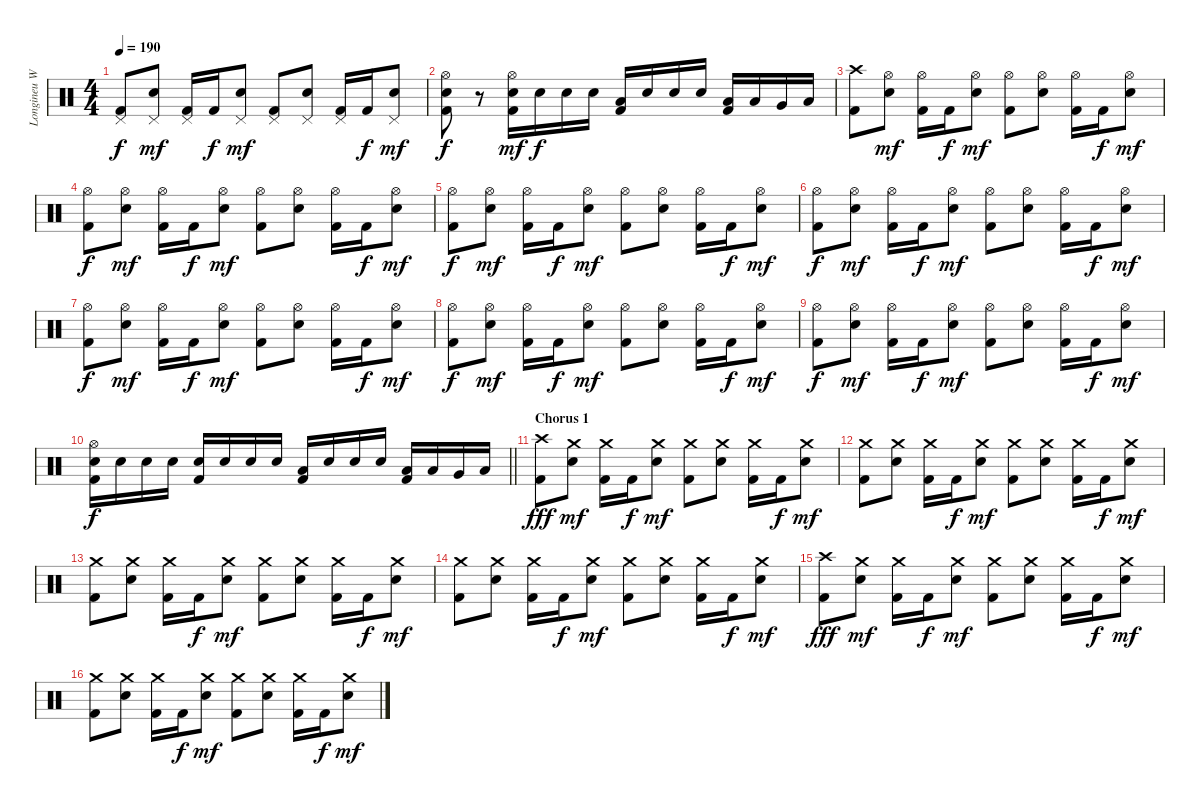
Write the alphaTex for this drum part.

\track ("Longineu W. Parsons III" "Longineu W") {instrument percussion}
\staff {score}
\articulation defaults
\ts (4 4)
\tempo 190
\clef neutral
\ks c
("Pedal Hi-Hat (hit)" "Kick (hit) 2").8{dy f} ("Pedal Hi-Hat (hit)" "Electric Snare (hit)").8{dy mf} ("Pedal Hi-Hat (hit)" "Kick (hit) 2").16 "Kick (hit) 2".16{dy f} ("Pedal Hi-Hat (hit)" "Electric Snare (hit)").8{dy mf} ("Pedal Hi-Hat (hit)" "Kick (hit) 2").8 ("Pedal Hi-Hat (hit)" "Electric Snare (hit)").8 ("Pedal Hi-Hat (hit)" "Kick (hit) 2").16 "Kick (hit) 2".16{dy f} ("Pedal Hi-Hat (hit)" "Electric Snare (hit)").8{dy mf} |
("Hi-Hat (open)" "Electric Snare (hit)" "Kick (hit) 2").8{dy f} r.8 ("Hi-Hat (open)" "Electric Snare (hit)" "Kick (hit) 2").16{dy mf} "Electric Snare (hit)".16{dy f} "Electric Snare (hit)".16 "Electric Snare (hit)".16 ("Low Tom (hit)" "Kick (hit) 2").16 "Electric Snare (hit)".16 "Electric Snare (hit)".16 "Electric Snare (hit)".16 ("Low Tom (hit)" "Kick (hit) 2").16 "Low Tom (hit)".16 "Very Low Tom (hit)".16 "Low Floor Tom (hit)".16 |
("Crash high (hit)" "Kick (hit) 2").8 ("Hi-Hat (open)" "Electric Snare (hit)").8{dy mf} ("Hi-Hat (open)" "Kick (hit) 2").16 "Kick (hit) 2".16{dy f} ("Hi-Hat (open)" "Electric Snare (hit)").8{dy mf} ("Hi-Hat (open)" "Kick (hit) 2").8 ("Hi-Hat (open)" "Electric Snare (hit)").8 ("Hi-Hat (open)" "Kick (hit) 2").16 "Kick (hit) 2".16{dy f} ("Hi-Hat (open)" "Electric Snare (hit)").8{dy mf} |
("Hi-Hat (open)" "Kick (hit) 2").8{dy f} ("Hi-Hat (open)" "Electric Snare (hit)").8{dy mf} ("Hi-Hat (open)" "Kick (hit) 2").16 "Kick (hit) 2".16{dy f} ("Hi-Hat (open)" "Electric Snare (hit)").8{dy mf} ("Hi-Hat (open)" "Kick (hit) 2").8 ("Hi-Hat (open)" "Electric Snare (hit)").8 ("Hi-Hat (open)" "Kick (hit) 2").16 "Kick (hit) 2".16{dy f} ("Hi-Hat (open)" "Electric Snare (hit)").8{dy mf} |
("Hi-Hat (open)" "Kick (hit) 2").8{dy f} ("Hi-Hat (open)" "Electric Snare (hit)").8{dy mf} ("Hi-Hat (open)" "Kick (hit) 2").16 "Kick (hit) 2".16{dy f} ("Hi-Hat (open)" "Electric Snare (hit)").8{dy mf} ("Hi-Hat (open)" "Kick (hit) 2").8 ("Hi-Hat (open)" "Electric Snare (hit)").8 ("Hi-Hat (open)" "Kick (hit) 2").16 "Kick (hit) 2".16{dy f} ("Hi-Hat (open)" "Electric Snare (hit)").8{dy mf} |
("Hi-Hat (open)" "Kick (hit) 2").8{dy f} ("Hi-Hat (open)" "Electric Snare (hit)").8{dy mf} ("Hi-Hat (open)" "Kick (hit) 2").16 "Kick (hit) 2".16{dy f} ("Hi-Hat (open)" "Electric Snare (hit)").8{dy mf} ("Hi-Hat (open)" "Kick (hit) 2").8 ("Hi-Hat (open)" "Electric Snare (hit)").8 ("Hi-Hat (open)" "Kick (hit) 2").16 "Kick (hit) 2".16{dy f} ("Hi-Hat (open)" "Electric Snare (hit)").8{dy mf} |
("Hi-Hat (open)" "Kick (hit) 2").8{dy f} ("Hi-Hat (open)" "Electric Snare (hit)").8{dy mf} ("Hi-Hat (open)" "Kick (hit) 2").16 "Kick (hit) 2".16{dy f} ("Hi-Hat (open)" "Electric Snare (hit)").8{dy mf} ("Hi-Hat (open)" "Kick (hit) 2").8 ("Hi-Hat (open)" "Electric Snare (hit)").8 ("Hi-Hat (open)" "Kick (hit) 2").16 "Kick (hit) 2".16{dy f} ("Hi-Hat (open)" "Electric Snare (hit)").8{dy mf} |
("Hi-Hat (open)" "Kick (hit) 2").8{dy f} ("Hi-Hat (open)" "Electric Snare (hit)").8{dy mf} ("Hi-Hat (open)" "Kick (hit) 2").16 "Kick (hit) 2".16{dy f} ("Hi-Hat (open)" "Electric Snare (hit)").8{dy mf} ("Hi-Hat (open)" "Kick (hit) 2").8 ("Hi-Hat (open)" "Electric Snare (hit)").8 ("Hi-Hat (open)" "Kick (hit) 2").16 "Kick (hit) 2".16{dy f} ("Hi-Hat (open)" "Electric Snare (hit)").8{dy mf} |
("Hi-Hat (open)" "Kick (hit) 2").8{dy f} ("Hi-Hat (open)" "Electric Snare (hit)").8{dy mf} ("Hi-Hat (open)" "Kick (hit) 2").16 "Kick (hit) 2".16{dy f} ("Hi-Hat (open)" "Electric Snare (hit)").8{dy mf} ("Hi-Hat (open)" "Kick (hit) 2").8 ("Hi-Hat (open)" "Electric Snare (hit)").8 ("Hi-Hat (open)" "Kick (hit) 2").16 "Kick (hit) 2".16{dy f} ("Hi-Hat (open)" "Electric Snare (hit)").8{dy mf} |
\barLineRight lightlight
("Hi-Hat (open)" "Electric Snare (hit)" "Kick (hit) 2").16{dy f} "Electric Snare (hit)".16 "Electric Snare (hit)".16 "Electric Snare (hit)".16 ("Electric Snare (hit)" "Kick (hit) 2").16 "Electric Snare (hit)".16 "Electric Snare (hit)".16 "Electric Snare (hit)".16 ("Low Tom (hit)" "Kick (hit) 2").16 "Electric Snare (hit)".16 "Electric Snare (hit)".16 "Electric Snare (hit)".16 ("Low Tom (hit)" "Kick (hit) 2").16 "Low Tom (hit)".16 "Very Low Tom (hit)".16 "Low Floor Tom (hit)".16 |
\section ("" "Chorus 1")
("Crash high (hit)" "Kick (hit) 2").8{dy fff} ("Crash medium (hit)" "Electric Snare (hit)").8{dy mf} ("Crash medium (hit)" "Kick (hit) 2").16 "Kick (hit) 2".16{dy f} ("Crash medium (hit)" "Electric Snare (hit)").8{dy mf} ("Crash medium (hit)" "Kick (hit) 2").8 ("Crash medium (hit)" "Electric Snare (hit)").8 ("Crash medium (hit)" "Kick (hit) 2").16 "Kick (hit) 2".16{dy f} ("Crash medium (hit)" "Electric Snare (hit)").8{dy mf} |
("Crash medium (hit)" "Kick (hit) 2").8 ("Crash medium (hit)" "Electric Snare (hit)").8 ("Crash medium (hit)" "Kick (hit) 2").16 "Kick (hit) 2".16{dy f} ("Crash medium (hit)" "Electric Snare (hit)").8{dy mf} ("Crash medium (hit)" "Kick (hit) 2").8 ("Crash medium (hit)" "Electric Snare (hit)").8 ("Crash medium (hit)" "Kick (hit) 2").16 "Kick (hit) 2".16{dy f} ("Crash medium (hit)" "Electric Snare (hit)").8{dy mf} |
("Crash medium (hit)" "Kick (hit) 2").8 ("Crash medium (hit)" "Electric Snare (hit)").8 ("Crash medium (hit)" "Kick (hit) 2").16 "Kick (hit) 2".16{dy f} ("Crash medium (hit)" "Electric Snare (hit)").8{dy mf} ("Crash medium (hit)" "Kick (hit) 2").8 ("Crash medium (hit)" "Electric Snare (hit)").8 ("Crash medium (hit)" "Kick (hit) 2").16 "Kick (hit) 2".16{dy f} ("Crash medium (hit)" "Electric Snare (hit)").8{dy mf} |
("Crash medium (hit)" "Kick (hit) 2").8 ("Crash medium (hit)" "Electric Snare (hit)").8 ("Crash medium (hit)" "Kick (hit) 2").16 "Kick (hit) 2".16{dy f} ("Crash medium (hit)" "Electric Snare (hit)").8{dy mf} ("Crash medium (hit)" "Kick (hit) 2").8 ("Crash medium (hit)" "Electric Snare (hit)").8 ("Crash medium (hit)" "Kick (hit) 2").16 "Kick (hit) 2".16{dy f} ("Crash medium (hit)" "Electric Snare (hit)").8{dy mf} |
("Crash high (hit)" "Kick (hit) 2").8{dy fff} ("Crash medium (hit)" "Electric Snare (hit)").8{dy mf} ("Crash medium (hit)" "Kick (hit) 2").16 "Kick (hit) 2".16{dy f} ("Crash medium (hit)" "Electric Snare (hit)").8{dy mf} ("Crash medium (hit)" "Kick (hit) 2").8 ("Crash medium (hit)" "Electric Snare (hit)").8 ("Crash medium (hit)" "Kick (hit) 2").16 "Kick (hit) 2".16{dy f} ("Crash medium (hit)" "Electric Snare (hit)").8{dy mf} |
("Crash medium (hit)" "Kick (hit) 2").8 ("Crash medium (hit)" "Electric Snare (hit)").8 ("Crash medium (hit)" "Kick (hit) 2").16 "Kick (hit) 2".16{dy f} ("Crash medium (hit)" "Electric Snare (hit)").8{dy mf} ("Crash medium (hit)" "Kick (hit) 2").8 ("Crash medium (hit)" "Electric Snare (hit)").8 ("Crash medium (hit)" "Kick (hit) 2").16 "Kick (hit) 2".16{dy f} ("Crash medium (hit)" "Electric Snare (hit)").8{dy mf}
